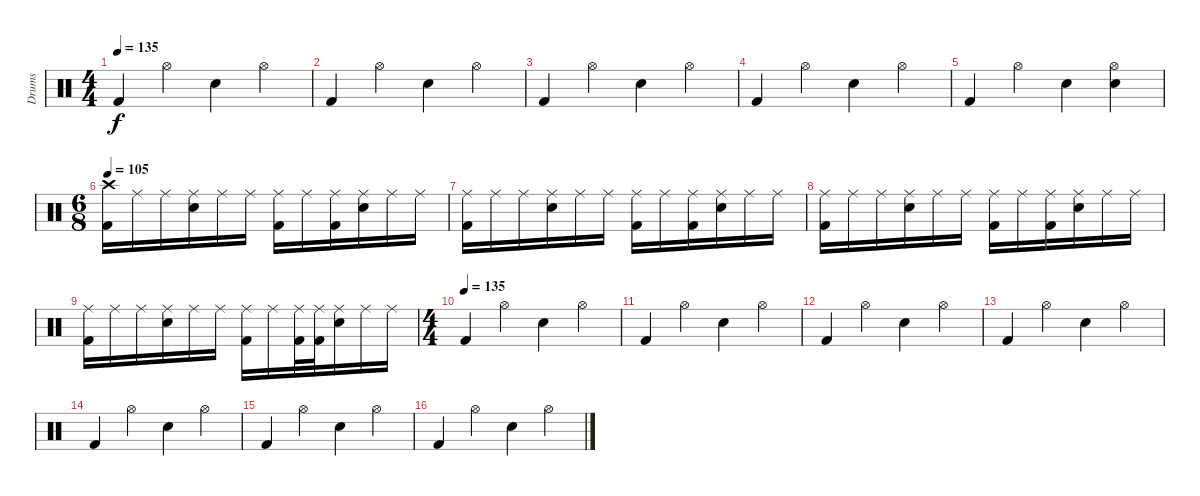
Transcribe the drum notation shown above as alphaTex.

\track ("Drums" "Drums") {instrument percussion}
\staff {score}
\articulation defaults
\ts (4 4)
\tempo 135
\clef neutral
\ks c "Kick (hit) 2".4{dy f} "Hi-Hat (open)".4 "Snare (hit) 2".4 "Hi-Hat (open)".4
|
"Kick (hit) 2".4 "Hi-Hat (open)".4 "Snare (hit) 2".4 "Hi-Hat (open)".4 |
"Kick (hit) 2".4 "Hi-Hat (open)".4 "Snare (hit) 2".4 "Hi-Hat (open)".4 |
"Kick (hit) 2".4 "Hi-Hat (open)".4 "Snare (hit) 2".4 "Hi-Hat (open)".4 |
"Kick (hit) 2".4 "Hi-Hat (open)".4 "Snare (hit) 2".4 ("Hi-Hat (open)" "Snare (hit) 2").4 |
\ts (6 8)
\tempo 105
("Crash high (hit)" "Kick (hit) 2").16 "Ride (middle)".16 "Ride (middle)".16 ("Ride (middle)" "Snare (hit) 2").16 "Ride (middle)".16 "Ride (middle)".16 ("Ride (middle)" "Kick (hit) 2").16 "Ride (middle)".16 ("Ride (middle)" "Kick (hit) 2").16 ("Ride (middle)" "Snare (hit) 2").16 "Ride (middle)".16 "Ride (middle)".16 |
("Ride (middle)" "Kick (hit) 2").16 "Ride (middle)".16 "Ride (middle)".16 ("Ride (middle)" "Snare (hit) 2").16 "Ride (middle)".16 "Ride (middle)".16 ("Ride (middle)" "Kick (hit) 2").16 "Ride (middle)".16 ("Ride (middle)" "Kick (hit) 2").16 ("Ride (middle)" "Snare (hit) 2").16 "Ride (middle)".16 "Ride (middle)".16 |
("Ride (middle)" "Kick (hit) 2").16 "Ride (middle)".16 "Ride (middle)".16 ("Ride (middle)" "Snare (hit) 2").16 "Ride (middle)".16 "Ride (middle)".16 ("Ride (middle)" "Kick (hit) 2").16 "Ride (middle)".16 ("Ride (middle)" "Kick (hit) 2").16 ("Ride (middle)" "Snare (hit) 2").16 "Ride (middle)".16 "Ride (middle)".16 |
("Ride (middle)" "Kick (hit) 2").16 "Ride (middle)".16 "Ride (middle)".16 ("Ride (middle)" "Snare (hit) 2").16 "Ride (middle)".16 "Ride (middle)".16 ("Ride (middle)" "Kick (hit) 2").16 "Ride (middle)".16 ("Ride (middle)" "Kick (hit) 2").32 ("Ride (middle)" "Kick (hit) 2").32 ("Ride (middle)" "Snare (hit) 2").16 "Ride (middle)".16 "Ride (middle)".16 |
\ts (4 4)
\tempo (135)
"Kick (hit) 2".4 "Hi-Hat (open)".4 "Snare (hit) 2".4 "Hi-Hat (open)".4 |
"Kick (hit) 2".4 "Hi-Hat (open)".4 "Snare (hit) 2".4 "Hi-Hat (open)".4 |
"Kick (hit) 2".4 "Hi-Hat (open)".4 "Snare (hit) 2".4 "Hi-Hat (open)".4 |
"Kick (hit) 2".4 "Hi-Hat (open)".4 "Snare (hit) 2".4 "Hi-Hat (open)".4 |
"Kick (hit) 2".4 "Hi-Hat (open)".4 "Snare (hit) 2".4 "Hi-Hat (open)".4 |
"Kick (hit) 2".4 "Hi-Hat (open)".4 "Snare (hit) 2".4 "Hi-Hat (open)".4 |
"Kick (hit) 2".4 "Hi-Hat (open)".4 "Snare (hit) 2".4 "Hi-Hat (open)".4
